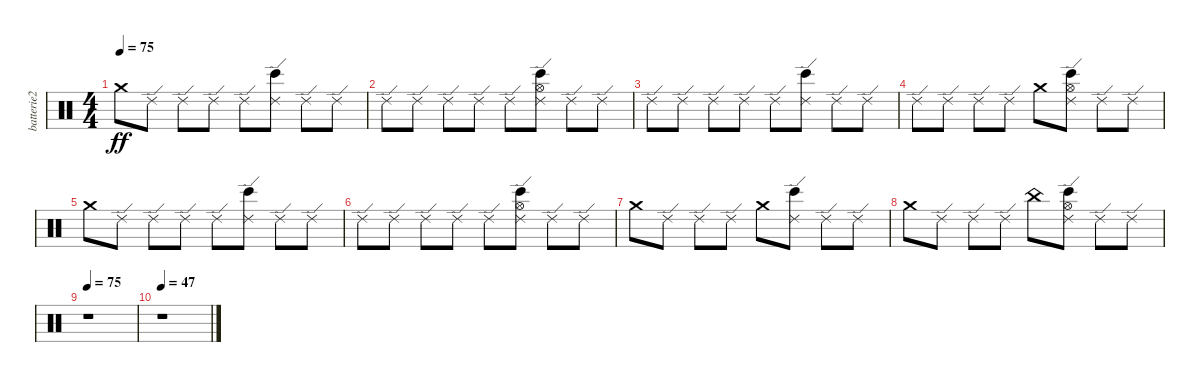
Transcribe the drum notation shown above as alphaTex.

\track ("batterie2" "batterie2") {instrument percussion}
\staff {score}
\articulation defaults
\ts (4 4)
\tempo 75
\clef neutral
\ks c "Crash medium (hit)".8{dy ff} "Ride (edge) 2".8 "Ride (edge) 2".8 "Ride (edge) 2".8 "Ride (edge) 2".8
("Ride (edge) 2" "Bongo High (hit)").8 "Ride (edge) 2".8 "Ride (edge) 2".8 |
"Ride (edge) 2".8 "Ride (edge) 2".8 "Ride (edge) 2".8 "Ride (edge) 2".8 "Ride (edge) 2".8 ("Hi-Hat (open)" "Ride (edge) 2" "Bongo High (hit)").8 "Ride (edge) 2".8 "Ride (edge) 2".8 |
"Ride (edge) 2".8 "Ride (edge) 2".8 "Ride (edge) 2".8 "Ride (edge) 2".8 "Ride (edge) 2".8 ("Ride (edge) 2" "Bongo High (hit)").8 "Ride (edge) 2".8 "Ride (edge) 2".8 |
"Ride (edge) 2".8 "Ride (edge) 2".8 "Ride (edge) 2".8 "Ride (edge) 2".8 "Crash medium (hit)".8 ("Hi-Hat (open)" "Ride (edge) 2" "Bongo High (hit)").8 "Ride (edge) 2".8 "Ride (edge) 2".8 |
"Crash medium (hit)".8 "Ride (edge) 2".8 "Ride (edge) 2".8 "Ride (edge) 2".8 "Ride (edge) 2".8 ("Ride (edge) 2" "Bongo High (hit)").8 "Ride (edge) 2".8 "Ride (edge) 2".8 |
"Ride (edge) 2".8 "Ride (edge) 2".8 "Ride (edge) 2".8 "Ride (edge) 2".8 "Ride (edge) 2".8 ("Hi-Hat (open)" "Ride (edge) 2" "Bongo High (hit)").8 "Ride (edge) 2".8 "Ride (edge) 2".8 |
"Crash medium (hit)".8 "Ride (edge) 2".8 "Ride (edge) 2".8 "Ride (edge) 2".8 "Crash medium (hit)".8 ("Ride (edge) 2" "Bongo High (hit)").8 "Ride (edge) 2".8 "Ride (edge) 2".8 |
"Crash medium (hit)".8 "Ride (edge) 2".8 "Ride (edge) 2".8 "Ride (edge) 2".8 "China (hit)".8 ("Hi-Hat (open)" "Ride (edge) 2" "Bongo High (hit)").8 "Ride (edge) 2".8 "Ride (edge) 2".8 |
\tempo 75
r.1 |
\tempo 47
r.1
